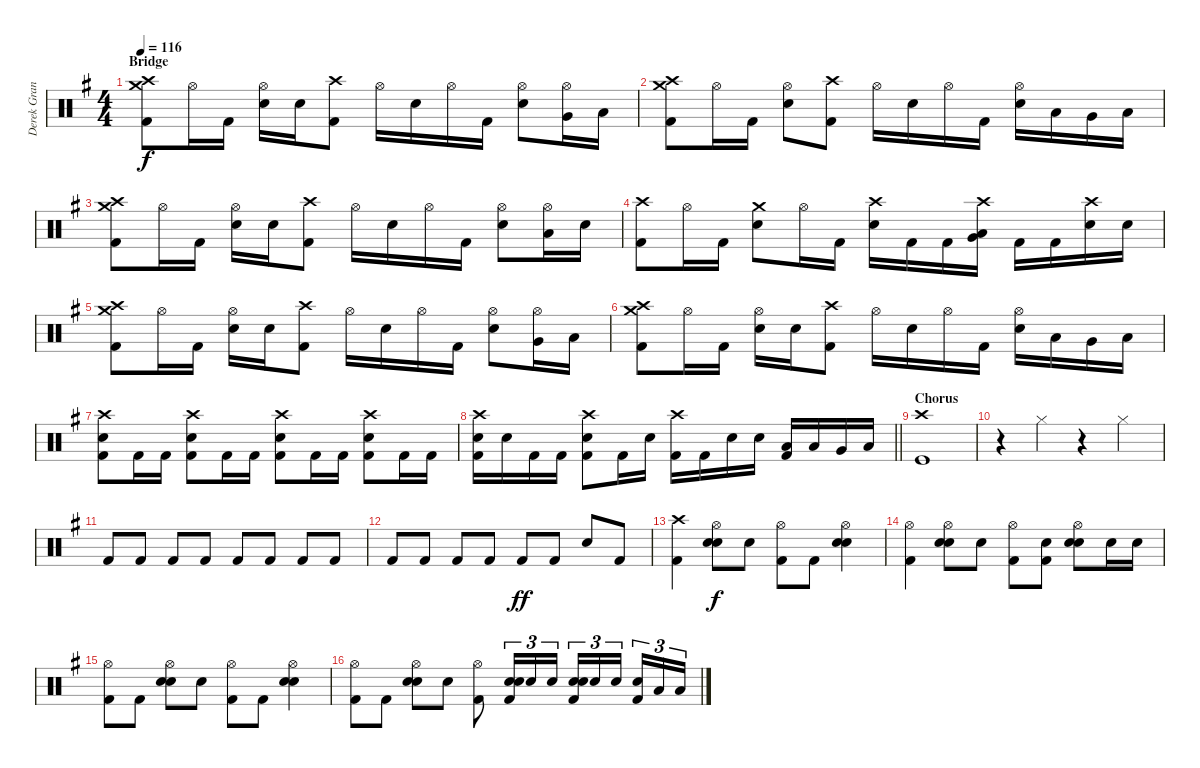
\track ("Derek Grant - Drums" "Derek Gran") {instrument percussion}
\staff {score}
\articulation defaults
\ts (4 4)
\section ("" "Bridge")
\tempo 116
\clef neutral
\ks g
("Crash high (hit)" "Kick (hit) 2" "Crash medium (hit)").8{dy f} "Hi-Hat (open)".16 "Kick (hit) 2".16 ("Snare (hit) 2" "Hi-Hat (open)").16 "Snare (hit) 2".16 ("Crash high (hit)" "Kick (hit) 2").8 "Hi-Hat (open)".16 "Snare (hit) 2".16 "Hi-Hat (open)".16 "Kick (hit) 2".16 ("Snare (hit) 2" "Hi-Hat (open)").8 ("Very Low Tom (hit)" "Hi-Hat (open)").16 "Low Tom (hit)".16 |
("Crash high (hit)" "Kick (hit) 2" "Crash medium (hit)").8 "Hi-Hat (open)".16 "Kick (hit) 2".16 ("Hi-Hat (open)" "Snare (hit) 2").8 ("Crash high (hit)" "Kick (hit) 2").8 "Hi-Hat (open)".16 "Snare (hit) 2".16 "Hi-Hat (open)".16 "Kick (hit) 2".16 ("Hi-Hat (open)" "Snare (hit) 2").16 "Low Tom (hit)".16 "Very Low Tom (hit)".16 "Low Floor Tom (hit)".16 |
("Crash high (hit)" "Kick (hit) 2" "Crash medium (hit)").8 "Hi-Hat (open)".16 "Kick (hit) 2".16 ("Snare (hit) 2" "Hi-Hat (open)").16 "Snare (hit) 2".16 ("Crash high (hit)" "Kick (hit) 2").8 "Hi-Hat (open)".16 "Snare (hit) 2".16 "Hi-Hat (open)".16 "Kick (hit) 2".16 ("Snare (hit) 2" "Hi-Hat (open)").8 ("Hi-Hat (open)" "Low Tom (hit)").16 "Snare (hit) 2".16 |
("Crash high (hit)" "Kick (hit) 2").8 "Hi-Hat (open)".16 "Kick (hit) 2".16 ("Snare (hit) 2" "Crash medium (hit)").8 "Hi-Hat (open)".16 "Kick (hit) 2".16 ("Crash high (hit)" "Snare (hit) 2").16 "Kick (hit) 2".16 "Kick (hit) 2".16 ("Very Low Tom (hit)" "Low Tom (hit)" "Crash high (hit)").16 "Kick (hit) 2".16 "Kick (hit) 2".16 ("Snare (hit) 2" "Crash high (hit)").16 "Snare (hit) 2".16 |
("Crash high (hit)" "Kick (hit) 2" "Crash medium (hit)").8 "Hi-Hat (open)".16 "Kick (hit) 2".16 ("Snare (hit) 2" "Hi-Hat (open)").16 "Snare (hit) 2".16 ("Crash high (hit)" "Kick (hit) 2").8 "Hi-Hat (open)".16 "Snare (hit) 2".16 "Hi-Hat (open)".16 "Kick (hit) 2".16 ("Snare (hit) 2" "Hi-Hat (open)").8 ("Very Low Tom (hit)" "Hi-Hat (open)").16 "Low Tom (hit)".16 |
("Crash high (hit)" "Kick (hit) 2" "Crash medium (hit)").8 "Hi-Hat (open)".16 "Kick (hit) 2".16 ("Hi-Hat (open)" "Snare (hit) 2").16 "Snare (hit) 2".16 ("Crash high (hit)" "Kick (hit) 2").8 "Hi-Hat (open)".16 "Snare (hit) 2".16 "Hi-Hat (open)".16 "Kick (hit) 2".16 ("Hi-Hat (open)" "Snare (hit) 2").16 "Low Tom (hit)".16 "Very Low Tom (hit)".16 "Low Floor Tom (hit)".16 |
("Crash high (hit)" "Kick (hit) 2" "Snare (hit) 2").8 "Kick (hit) 2".16 "Kick (hit) 2".16 ("Crash high (hit)" "Kick (hit) 2" "Snare (hit) 2").8 "Kick (hit) 2".16 "Kick (hit) 2".16 ("Crash high (hit)" "Kick (hit) 2" "Snare (hit) 2").8 "Kick (hit) 2".16 "Kick (hit) 2".16 ("Crash high (hit)" "Kick (hit) 2" "Snare (hit) 2").8 "Kick (hit) 2".16 "Kick (hit) 2".16 |
\barLineRight lightlight
("Crash high (hit)" "Kick (hit) 2" "Snare (hit) 2").16 "Snare (hit) 2".16 "Kick (hit) 2".16 "Kick (hit) 2".16 ("Crash high (hit)" "Kick (hit) 2" "Snare (hit) 2").8 "Kick (hit) 2".16 "Snare (hit) 2".16 ("Kick (hit) 2" "Crash high (hit)").16 "Kick (hit) 2".16 "Snare (hit) 2".16 "Snare (hit) 2".16 ("Kick (hit) 2" "Low Tom (hit)").16 "Low Tom (hit)".16 "Very Low Tom (hit)".16 "Low Floor Tom (hit)".16 |
\section ("" "Chorus")
("Kick (hit)" "Crash high (hit)").1 |
r.4 "Hi-Hat (closed)".4 r.4 "Hi-Hat (closed)".4 |
"Kick (hit) 2".8 "Kick (hit) 2".8 "Kick (hit) 2".8 "Kick (hit) 2".8 "Kick (hit) 2".8 "Kick (hit) 2".8 "Kick (hit) 2".8 "Kick (hit) 2".8 |
"Kick (hit) 2".8 "Kick (hit) 2".8 "Kick (hit) 2".8 "Kick (hit) 2".8 "Kick (hit) 2".8{dy ff} "Kick (hit) 2".8 "Snare (hit) 2".8 "Kick (hit) 2".8 |
("Kick (hit) 2" "Crash high (hit)").4 ("Snare (hit) 2" "Hi-Hat (open)" "Hand Clap (hit)").8{dy f} "Hand Clap (hit)".8 ("Kick (hit) 2" "Hi-Hat (open)").8 "Kick (hit) 2".8 ("Snare (hit) 2" "Hi-Hat (open)" "Hand Clap (hit)").4 |
("Kick (hit) 2" "Hi-Hat (open)").4 ("Snare (hit) 2" "Hi-Hat (open)" "Hand Clap (hit)").8 "Hand Clap (hit)".8 ("Kick (hit) 2" "Hi-Hat (open)").8 ("Kick (hit) 2" "Hand Clap (hit)").8 ("Snare (hit) 2" "Hi-Hat (open)" "Hand Clap (hit)").8 "Snare (hit) 2".16 "Snare (hit) 2".16 |
("Kick (hit) 2" "Hi-Hat (open)").8 "Kick (hit) 2".8 ("Snare (hit) 2" "Hi-Hat (open)" "Hand Clap (hit)").8 "Hand Clap (hit)".8 ("Kick (hit) 2" "Hi-Hat (open)").8 "Kick (hit) 2".8 ("Snare (hit) 2" "Hi-Hat (open)" "Hand Clap (hit)").4 |
("Kick (hit) 2" "Hi-Hat (open)").8 "Kick (hit) 2".8 ("Hand Clap (hit)" "Hi-Hat (open)" "Snare (hit) 2").8 "Hand Clap (hit)".8 ("Kick (hit) 2" "Hi-Hat (open)").8 ("Snare (hit) 2" "Kick (hit) 2" "Hand Clap (hit)").16{tu (3 2)} "Snare (hit) 2".16{tu (3 2)} "Snare (hit) 2".16{tu (3 2)} ("Snare (hit) 2" "Kick (hit) 2" "Hand Clap (hit)").16{tu (3 2)} "Snare (hit) 2".16{tu (3 2)} "Snare (hit) 2".16{tu (3 2) beam splitsecondary} ("Snare (hit) 2" "Kick (hit) 2").16{tu (3 2)} "Low Tom (hit)".16{tu (3 2)} "Low Tom (hit)".16{tu (3 2)}
